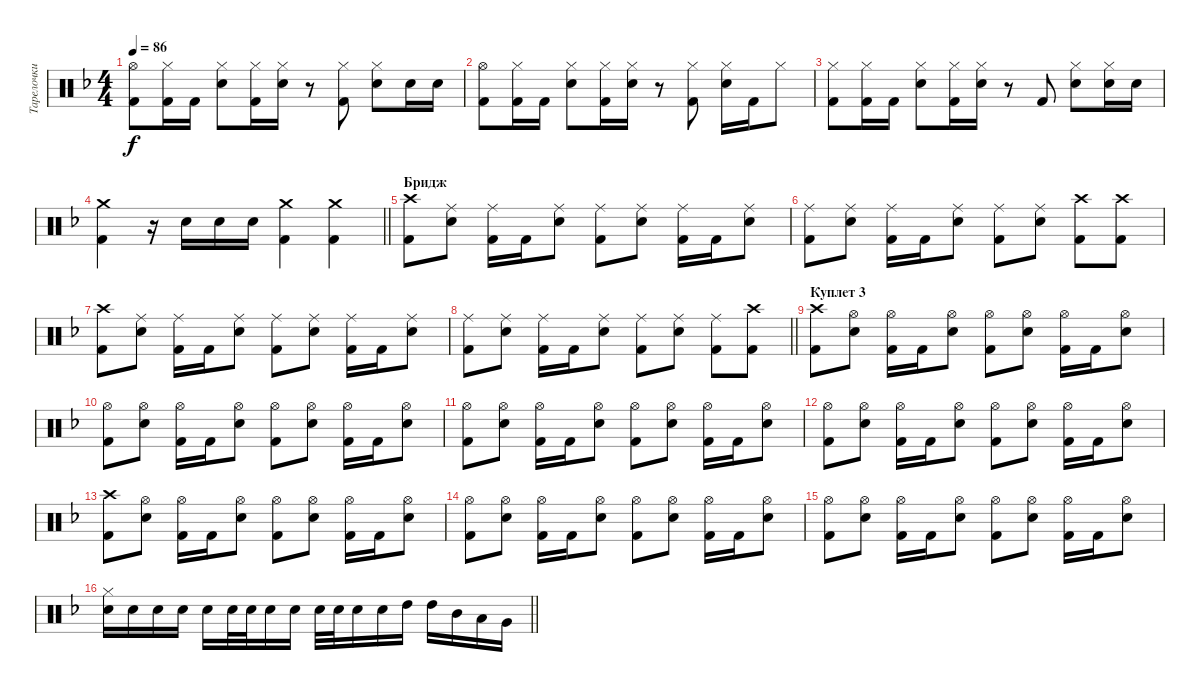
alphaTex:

\track ("Тарелочки" "Тарелочки") {instrument percussion}
\staff {score}
\articulation defaults
\ts (4 4)
\tempo 86
\clef neutral
\ks f
("Kick (hit) 2" "Hi-Hat (open)").8{dy f} ("Kick (hit) 2" "Hi-Hat (closed)").16 "Kick (hit) 2".16 ("Snare (hit) 2" "Hi-Hat (closed)").8 ("Kick (hit) 2" "Hi-Hat (closed)").16 ("Snare (hit) 2" "Hi-Hat (closed)").16 r.8 ("Kick (hit) 2" "Hi-Hat (closed)").8 ("Snare (hit) 2" "Hi-Hat (closed)").8 "Snare (hit) 2".16 "Snare (hit) 2".16 |
("Kick (hit) 2" "Hi-Hat (open)").8 ("Kick (hit) 2" "Hi-Hat (closed)").16 "Kick (hit) 2".16 ("Snare (hit) 2" "Hi-Hat (closed)").8 ("Kick (hit) 2" "Hi-Hat (closed)").16 ("Snare (hit) 2" "Hi-Hat (closed)").16 r.8 ("Kick (hit) 2" "Hi-Hat (closed)").8 ("Snare (hit) 2" "Hi-Hat (closed)").16 "Kick (hit) 2".16 "Hi-Hat (closed)".8 |
("Kick (hit) 2" "Hi-Hat (closed)").8 ("Kick (hit) 2" "Hi-Hat (closed)").16 "Kick (hit) 2".16 ("Snare (hit) 2" "Hi-Hat (closed)").8 ("Kick (hit) 2" "Hi-Hat (closed)").16 ("Snare (hit) 2" "Hi-Hat (closed)").16 r.8 "Kick (hit) 2".8 ("Snare (hit) 2" "Hi-Hat (closed)").8 ("Snare (hit) 2" "Hi-Hat (closed)").16 "Snare (hit) 2".16 |
\barLineRight lightlight
("Kick (hit) 2" "Crash medium (hit)").4 r.16 "Snare (hit) 2".16 "Snare (hit) 2".16 "Snare (hit) 2".16 ("Kick (hit) 2" "Crash medium (hit)").4 ("Kick (hit) 2" "Crash medium (hit)").4 |
\section ("" "Бридж")
("Kick (hit) 2" "Crash high (hit)").8 ("Snare (hit) 2" "Ride (middle)").8 ("Kick (hit) 2" "Ride (middle)").16 "Kick (hit) 2".16 ("Snare (hit) 2" "Ride (middle)").8 ("Kick (hit) 2" "Ride (middle)").8 ("Snare (hit) 2" "Ride (middle)").8 ("Kick (hit) 2" "Ride (middle)").16 "Kick (hit) 2".16 ("Snare (hit) 2" "Ride (middle)").8 |
("Kick (hit) 2" "Ride (middle)").8 ("Snare (hit) 2" "Ride (middle)").8 ("Kick (hit) 2" "Ride (middle)").16 "Kick (hit) 2".16 ("Snare (hit) 2" "Ride (middle)").8 ("Kick (hit) 2" "Ride (middle)").8 ("Snare (hit) 2" "Ride (middle)").8 ("Kick (hit) 2" "Crash high (hit)").8 ("Kick (hit) 2" "Crash high (hit)").8 |
("Kick (hit) 2" "Crash high (hit)").8 ("Snare (hit) 2" "Ride (middle)").8 ("Kick (hit) 2" "Ride (middle)").16 "Kick (hit) 2".16 ("Snare (hit) 2" "Ride (middle)").8 ("Kick (hit) 2" "Ride (middle)").8 ("Snare (hit) 2" "Ride (middle)").8 ("Kick (hit) 2" "Ride (middle)").16 "Kick (hit) 2".16 ("Snare (hit) 2" "Ride (middle)").8 |
\barLineRight lightlight
("Kick (hit) 2" "Ride (middle)").8 ("Snare (hit) 2" "Ride (middle)").8 ("Kick (hit) 2" "Ride (middle)").16 "Kick (hit) 2".16 ("Snare (hit) 2" "Ride (middle)").8 ("Kick (hit) 2" "Ride (middle)").8 ("Snare (hit) 2" "Ride (middle)").8 ("Kick (hit) 2" "Ride (middle)").8 ("Kick (hit) 2" "Crash high (hit)").8 |
\section ("" "Куплет 3")
("Kick (hit) 2" "Crash high (hit)").8 ("Snare (hit) 2" "Hi-Hat (open)").8 ("Kick (hit) 2" "Hi-Hat (open)").16 "Kick (hit) 2".16 ("Snare (hit) 2" "Hi-Hat (open)").8 ("Kick (hit) 2" "Hi-Hat (open)").8 ("Snare (hit) 2" "Hi-Hat (open)").8 ("Kick (hit) 2" "Hi-Hat (open)").16 "Kick (hit) 2".16 ("Snare (hit) 2" "Hi-Hat (open)").8 |
("Kick (hit) 2" "Hi-Hat (open)").8 ("Snare (hit) 2" "Hi-Hat (open)").8 ("Kick (hit) 2" "Hi-Hat (open)").16 "Kick (hit) 2".16 ("Snare (hit) 2" "Hi-Hat (open)").8 ("Kick (hit) 2" "Hi-Hat (open)").8 ("Snare (hit) 2" "Hi-Hat (open)").8 ("Kick (hit) 2" "Hi-Hat (open)").16 "Kick (hit) 2".16 ("Snare (hit) 2" "Hi-Hat (open)").8 |
("Kick (hit) 2" "Hi-Hat (open)").8 ("Snare (hit) 2" "Hi-Hat (open)").8 ("Kick (hit) 2" "Hi-Hat (open)").16 "Kick (hit) 2".16 ("Snare (hit) 2" "Hi-Hat (open)").8 ("Kick (hit) 2" "Hi-Hat (open)").8 ("Snare (hit) 2" "Hi-Hat (open)").8 ("Kick (hit) 2" "Hi-Hat (open)").16 "Kick (hit) 2".16 ("Snare (hit) 2" "Hi-Hat (open)").8 |
("Kick (hit) 2" "Hi-Hat (open)").8 ("Snare (hit) 2" "Hi-Hat (open)").8 ("Kick (hit) 2" "Hi-Hat (open)").16 "Kick (hit) 2".16 ("Snare (hit) 2" "Hi-Hat (open)").8 ("Kick (hit) 2" "Hi-Hat (open)").8 ("Snare (hit) 2" "Hi-Hat (open)").8 ("Kick (hit) 2" "Hi-Hat (open)").16 "Kick (hit) 2".16 ("Snare (hit) 2" "Hi-Hat (open)").8 |
("Kick (hit) 2" "Crash high (hit)").8 ("Snare (hit) 2" "Hi-Hat (open)").8 ("Kick (hit) 2" "Hi-Hat (open)").16 "Kick (hit) 2".16 ("Snare (hit) 2" "Hi-Hat (open)").8 ("Kick (hit) 2" "Hi-Hat (open)").8 ("Snare (hit) 2" "Hi-Hat (open)").8 ("Kick (hit) 2" "Hi-Hat (open)").16 "Kick (hit) 2".16 ("Snare (hit) 2" "Hi-Hat (open)").8 |
("Kick (hit) 2" "Hi-Hat (open)").8 ("Snare (hit) 2" "Hi-Hat (open)").8 ("Kick (hit) 2" "Hi-Hat (open)").16 "Kick (hit) 2".16 ("Snare (hit) 2" "Hi-Hat (open)").8 ("Kick (hit) 2" "Hi-Hat (open)").8 ("Snare (hit) 2" "Hi-Hat (open)").8 ("Kick (hit) 2" "Hi-Hat (open)").16 "Kick (hit) 2".16 ("Snare (hit) 2" "Hi-Hat (open)").8 |
("Kick (hit) 2" "Hi-Hat (open)").8 ("Snare (hit) 2" "Hi-Hat (open)").8 ("Kick (hit) 2" "Hi-Hat (open)").16 "Kick (hit) 2".16 ("Snare (hit) 2" "Hi-Hat (open)").8 ("Kick (hit) 2" "Hi-Hat (open)").8 ("Snare (hit) 2" "Hi-Hat (open)").8 ("Kick (hit) 2" "Hi-Hat (open)").16 "Kick (hit) 2".16 ("Snare (hit) 2" "Hi-Hat (open)").8 |
\barLineRight lightlight
("Snare (hit) 2" "Hi-Hat (closed)").16 "Snare (hit) 2".16 "Snare (hit) 2".16 "Snare (hit) 2".16 "Snare (hit) 2".16 "Electric Snare (hit)".32 "Snare (hit) 2".32 "Snare (hit) 2".16 "Snare (hit) 2".16 "Snare (hit) 2".32 "Snare (hit) 2".32 "Snare (hit) 2".16 "Snare (hit) 2".16 "High Tom (hit)".16 "High Tom (hit)".16 "Mid Tom (hit)".16 "Low Tom (hit)".16 "Very Low Tom (hit)".16
